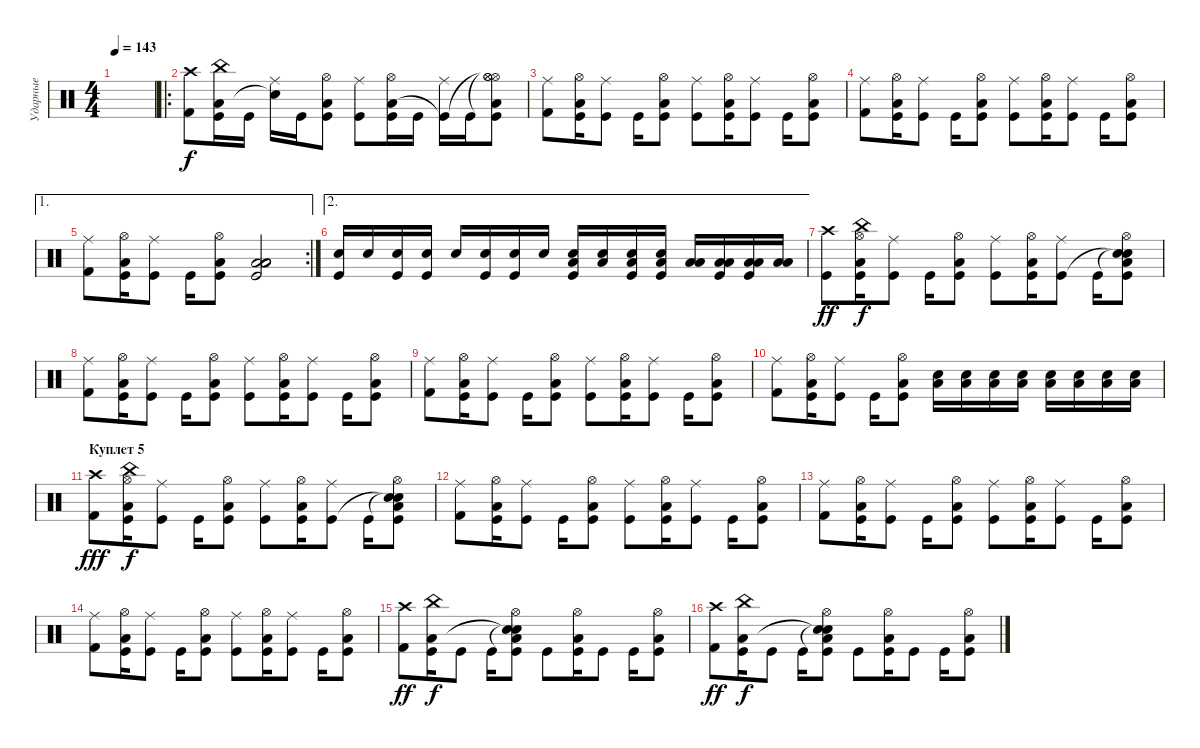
\track ("Ударные" "Ударные") {instrument percussion}
\staff {score}
\articulation defaults
\ts (4 4)
\tempo 143
\clef neutral
\ks c
|
\ro
("Crash high (hit)" "Kick (hit) 2").8{balance 14} ("China (hit)" "Low Tom (hit)" "Kick (hit)").16 "Kick (hit)".16{balance 8} ("Ride (middle)" "Snare (hit)"{t}).16 "Kick (hit)".16 ("Hi-Hat (open)" "Low Tom (hit)" "Kick (hit)").8 ("Ride (middle)" "Kick (hit)").8 ("Hi-Hat (open)" "Low Tom (hit)" "Kick (hit)").16 "Kick (hit)".16 ("Ride (middle)" "Kick (hit)"{t}).16 "Kick (hit)".16 ("Hi-Hat (open)"{t} "Hi-Hat (open)"{t} "Hi-Hat (open)" "Low Tom (hit)" "Kick (hit)").8 |
("Ride (middle)" "Kick (hit) 2").8 ("Hi-Hat (open)" "Low Tom (hit)" "Kick (hit)").16 ("Ride (middle)" "Kick (hit)").8 "Kick (hit)".16 ("Hi-Hat (open)" "Low Tom (hit)" "Kick (hit)").8 ("Ride (middle)" "Kick (hit)").8 ("Hi-Hat (open)" "Low Tom (hit)" "Kick (hit)").16 ("Ride (middle)" "Kick (hit)").8 "Kick (hit)".16 ("Hi-Hat (open)" "Low Tom (hit)" "Kick (hit)").8 |
("Ride (middle)" "Kick (hit) 2").8 ("Hi-Hat (open)" "Low Tom (hit)" "Kick (hit)").16 ("Ride (middle)" "Kick (hit)").8 "Kick (hit)".16 ("Hi-Hat (open)" "Low Tom (hit)" "Kick (hit)").8 ("Ride (middle)" "Kick (hit)").8 ("Hi-Hat (open)" "Low Tom (hit)" "Kick (hit)").16 ("Ride (middle)" "Kick (hit)").8 "Kick (hit)".16 ("Hi-Hat (open)" "Low Tom (hit)" "Kick (hit)").8 |
\ae 1
\rc 2
("Ride (middle)" "Kick (hit) 2").8 ("Hi-Hat (open)" "Low Tom (hit)" "Kick (hit)").16 ("Ride (middle)" "Kick (hit)").8 "Kick (hit)".16 ("Hi-Hat (open)" "Low Tom (hit)" "Kick (hit)").8 ("Low Floor Tom (hit)" "Low Floor Tom (hit)" "Low Tom (hit)" "Low Tom (hit)" "Kick (hit)").2 |
\ae 2
("Snare (hit) 2" "Kick (hit)").16 "Snare (hit) 2".16 ("Snare (hit) 2" "Kick (hit)").16 ("Snare (hit) 2" "Kick (hit)").16 "Snare (hit) 2".16 ("Snare (hit) 2" "Kick (hit)").16 ("Snare (hit) 2" "Kick (hit)").16 "Snare (hit) 2".16 ("Low Floor Tom (hit)" "Snare (hit) 2" "Kick (hit)").16 ("Low Floor Tom (hit)" "Snare (hit) 2").16 ("Low Floor Tom (hit)" "Snare (hit) 2" "Kick (hit)").16 ("Low Floor Tom (hit)" "Snare (hit) 2" "Kick (hit)").16 ("Low Floor Tom (hit)" "Low Tom (hit)").16 ("Low Floor Tom (hit)" "Low Tom (hit)" "Kick (hit)").16 ("Low Floor Tom (hit)" "Low Tom (hit)" "Kick (hit)").16 ("Low Floor Tom (hit)" "Low Tom (hit)").16 |
("Crash high (hit)" "Kick (hit)").8{dy ff balance 14} ("China (hit)" "Hi-Hat (open)" "Low Tom (hit)" "Kick (hit)").16{dy f} ("Ride (middle)" "Kick (hit)").8{balance 8} "Kick (hit)".16 ("Hi-Hat (open)" "Low Tom (hit)" "Kick (hit)").8 ("Ride (middle)" "Kick (hit)").8 ("Hi-Hat (open)" "Low Tom (hit)" "Kick (hit)").16 ("Ride (middle)" "Kick (hit)").8 "Kick (hit)".16 ("Snare (hit)"{t} "Snare (hit)"{t} "Hi-Hat (open)" "Low Tom (hit)" "Kick (hit)").8 |
("Ride (middle)" "Kick (hit) 2").8 ("Hi-Hat (open)" "Low Tom (hit)" "Kick (hit)").16 ("Ride (middle)" "Kick (hit)").8 "Kick (hit)".16 ("Hi-Hat (open)" "Low Tom (hit)" "Kick (hit)").8 ("Ride (middle)" "Kick (hit)").8 ("Hi-Hat (open)" "Low Tom (hit)" "Kick (hit)").16 ("Ride (middle)" "Kick (hit)").8 "Kick (hit)".16 ("Hi-Hat (open)" "Low Tom (hit)" "Kick (hit)").8 |
("Ride (middle)" "Kick (hit) 2").8 ("Hi-Hat (open)" "Low Tom (hit)" "Kick (hit)").16 ("Ride (middle)" "Kick (hit)").8 "Kick (hit)".16 ("Hi-Hat (open)" "Low Tom (hit)" "Kick (hit)").8 ("Ride (middle)" "Kick (hit)").8 ("Hi-Hat (open)" "Low Tom (hit)" "Kick (hit)").16 ("Ride (middle)" "Kick (hit)").8 "Kick (hit)".16 ("Hi-Hat (open)" "Low Tom (hit)" "Kick (hit)").8 |
("Ride (middle)" "Kick (hit) 2").8 ("Hi-Hat (open)" "Low Tom (hit)" "Kick (hit)").16 ("Ride (middle)" "Kick (hit)").8 "Kick (hit)".16 ("Hi-Hat (open)" "Low Tom (hit)" "Kick (hit)").8 ("Snare (hit) 2" "Low Tom (hit)").16 ("Snare (hit) 2" "Low Tom (hit)").16 ("Snare (hit) 2" "Low Tom (hit)").16 ("Snare (hit) 2" "Low Tom (hit)").16 ("Snare (hit) 2" "Low Tom (hit)").16 ("Snare (hit) 2" "Low Tom (hit)").16 ("Snare (hit) 2" "Low Tom (hit)").16 ("Snare (hit) 2" "Low Tom (hit)").16 |
\section ("" "Куплет 5")
("Crash high (hit)" "Kick (hit) 2").8{dy fff balance 14} ("China (hit)" "Hi-Hat (open)" "Low Tom (hit)" "Kick (hit)").16{dy f} ("Ride (middle)" "Kick (hit)").8{balance 8} "Kick (hit)".16 ("Hi-Hat (open)" "Low Tom (hit)" "Kick (hit)").8 ("Ride (middle)" "Kick (hit)").8 ("Hi-Hat (open)" "Low Tom (hit)" "Kick (hit)").16 ("Ride (middle)" "Kick (hit)").8 "Kick (hit)".16 ("Snare (hit)"{t} "Snare (hit)"{t} "Hi-Hat (open)" "Low Tom (hit)" "Kick (hit)").8 |
("Ride (middle)" "Kick (hit) 2").8 ("Hi-Hat (open)" "Low Tom (hit)" "Kick (hit)").16 ("Ride (middle)" "Kick (hit)").8 "Kick (hit)".16 ("Hi-Hat (open)" "Low Tom (hit)" "Kick (hit)").8 ("Ride (middle)" "Kick (hit)").8 ("Hi-Hat (open)" "Low Tom (hit)" "Kick (hit)").16 ("Ride (middle)" "Kick (hit)").8 "Kick (hit)".16 ("Hi-Hat (open)" "Low Tom (hit)" "Kick (hit)").8 |
("Ride (middle)" "Kick (hit) 2").8 ("Hi-Hat (open)" "Low Tom (hit)" "Kick (hit)").16 ("Ride (middle)" "Kick (hit)").8 "Kick (hit)".16 ("Hi-Hat (open)" "Low Tom (hit)" "Kick (hit)").8 ("Ride (middle)" "Kick (hit)").8 ("Hi-Hat (open)" "Low Tom (hit)" "Kick (hit)").16 ("Ride (middle)" "Kick (hit)").8 "Kick (hit)".16 ("Hi-Hat (open)" "Low Tom (hit)" "Kick (hit)").8 |
("Ride (middle)" "Kick (hit) 2").8 ("Hi-Hat (open)" "Low Tom (hit)" "Kick (hit)").16 ("Ride (middle)" "Kick (hit)").8 "Kick (hit)".16 ("Hi-Hat (open)" "Low Tom (hit)" "Kick (hit)").8 ("Ride (middle)" "Kick (hit)").8 ("Hi-Hat (open)" "Low Tom (hit)" "Kick (hit)").16 ("Ride (middle)" "Kick (hit)").8 "Kick (hit)".16 ("Hi-Hat (open)" "Low Tom (hit)" "Kick (hit)").8 |
("Crash high (hit)" "Kick (hit) 2").8{dy ff balance 14} ("China (hit)" "Low Tom (hit)" "Kick (hit)").16{dy f} "Kick (hit)".8{balance 8} "Kick (hit)".16 ("Snare (hit)"{t} "Snare (hit)"{t} "Hi-Hat (open)" "Low Tom (hit)" "Kick (hit)").8 "Kick (hit)".8 ("Hi-Hat (open)" "Low Tom (hit)" "Kick (hit)").16 "Kick (hit)".8 "Kick (hit)".16 ("Hi-Hat (open)" "Low Tom (hit)" "Kick (hit)").8 |
("Crash high (hit)" "Kick (hit) 2").8{dy ff balance 14} ("China (hit)" "Low Tom (hit)" "Kick (hit)").16{dy f} "Kick (hit)".8{balance 8} "Kick (hit)".16 ("Snare (hit)"{t} "Snare (hit)"{t} "Hi-Hat (open)" "Low Tom (hit)" "Kick (hit)").8 "Kick (hit)".8 ("Hi-Hat (open)" "Low Tom (hit)" "Kick (hit)").16 "Kick (hit)".8 "Kick (hit)".16 ("Hi-Hat (open)" "Low Tom (hit)" "Kick (hit)").8
